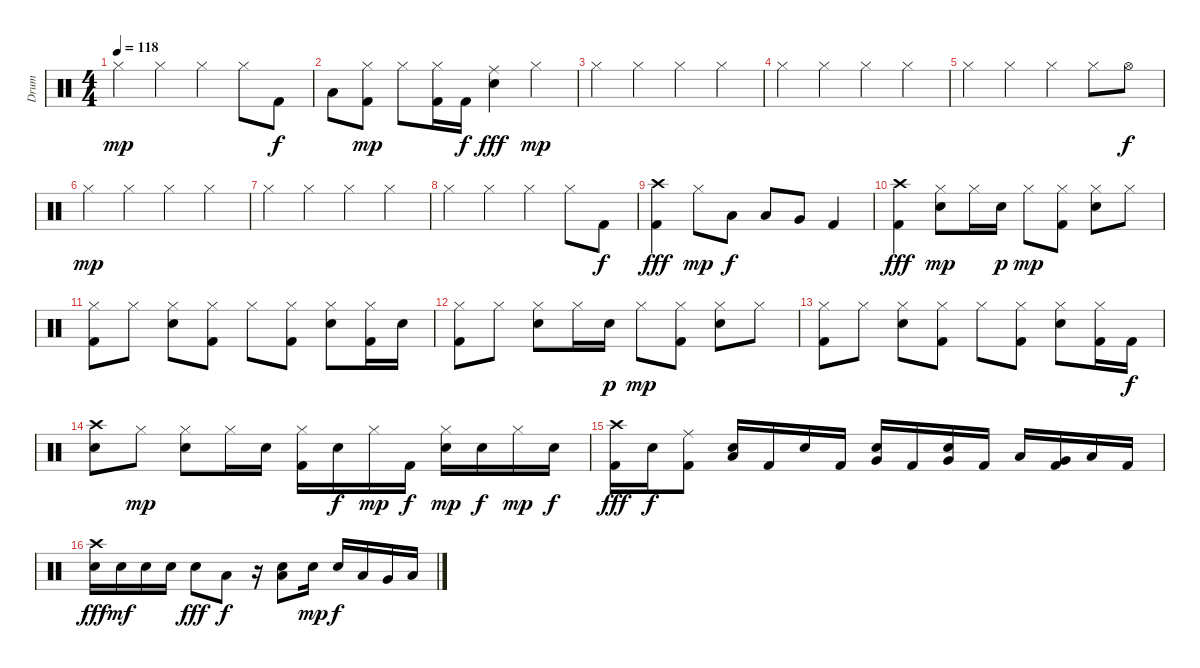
\track ("Drum" "Drum") {instrument percussion}
\staff {score}
\articulation defaults
\ts (4 4)
\tempo 118
\clef neutral
\ks c "Hi-Hat (closed)".4{dy mp} "Hi-Hat (closed)".4 "Hi-Hat (closed)".4 "Hi-Hat (closed)".8 "Kick (hit) 2".8{dy f}
|
"Low Tom (hit)".8 ("Hi-Hat (closed)" "Kick (hit) 2").8{dy mp} "Hi-Hat (closed)".8 ("Hi-Hat (closed)" "Kick (hit) 2").16 "Kick (hit) 2".16{dy f} ("Ride (middle)" "Snare (hit) 2").4{dy fff} "Hi-Hat (closed)".4{dy mp} |
"Hi-Hat (closed)".4 "Hi-Hat (closed)".4 "Hi-Hat (closed)".4 "Hi-Hat (closed)".4 |
"Hi-Hat (closed)".4 "Hi-Hat (closed)".4 "Hi-Hat (closed)".4 "Hi-Hat (closed)".4 |
"Hi-Hat (closed)".4 "Hi-Hat (closed)".4 "Hi-Hat (closed)".4 "Hi-Hat (closed)".8 "Hi-Hat (open)".8{dy f} |
"Hi-Hat (closed)".4{dy mp} "Hi-Hat (closed)".4 "Hi-Hat (closed)".4 "Hi-Hat (closed)".4 |
"Hi-Hat (closed)".4 "Hi-Hat (closed)".4 "Hi-Hat (closed)".4 "Hi-Hat (closed)".4 |
"Hi-Hat (closed)".4 "Hi-Hat (closed)".4 "Hi-Hat (closed)".4 "Hi-Hat (closed)".8 "Kick (hit) 2".8{dy f} |
("Crash high (hit)" "Kick (hit) 2").4{dy fff} "Hi-Hat (closed)".8{dy mp} "Low Tom (hit)".8{dy f} "Low Tom (hit)".8 "Very Low Tom (hit)".8 "Kick (hit) 2".4 |
("Crash high (hit)" "Kick (hit) 2").4{dy fff} ("Hi-Hat (closed)" "Snare (hit) 2").8{dy mp} "Hi-Hat (closed)".16 "Snare (hit) 2".16{dy p} "Hi-Hat (closed)".8{dy mp} ("Hi-Hat (closed)" "Kick (hit) 2").8 ("Hi-Hat (closed)" "Snare (hit) 2").8 "Hi-Hat (closed)".8 |
("Hi-Hat (closed)" "Kick (hit) 2").8 "Hi-Hat (closed)".8 ("Hi-Hat (closed)" "Snare (hit) 2").8 ("Hi-Hat (closed)" "Kick (hit) 2").8 "Hi-Hat (closed)".8 ("Hi-Hat (closed)" "Kick (hit) 2").8 ("Hi-Hat (closed)" "Snare (hit) 2").8 ("Hi-Hat (closed)" "Kick (hit) 2").16 "Snare (hit) 2".16 |
("Hi-Hat (closed)" "Kick (hit) 2").8 "Hi-Hat (closed)".8 ("Hi-Hat (closed)" "Snare (hit) 2").8 "Hi-Hat (closed)".16 "Snare (hit) 2".16{dy p} "Hi-Hat (closed)".8{dy mp} ("Hi-Hat (closed)" "Kick (hit) 2").8 ("Hi-Hat (closed)" "Snare (hit) 2").8 "Hi-Hat (closed)".8 |
("Hi-Hat (closed)" "Kick (hit) 2").8 "Hi-Hat (closed)".8 ("Hi-Hat (closed)" "Snare (hit) 2").8 ("Hi-Hat (closed)" "Kick (hit) 2").8 "Hi-Hat (closed)".8 ("Hi-Hat (closed)" "Kick (hit) 2").8 ("Hi-Hat (closed)" "Snare (hit) 2").8 ("Hi-Hat (closed)" "Kick (hit) 2").16 "Kick (hit) 2".16{dy f} |
("Crash high (hit)" "Snare (hit) 2").8 "Hi-Hat (closed)".8{dy mp} ("Hi-Hat (closed)" "Snare (hit) 2").8 "Hi-Hat (closed)".16 "Snare (hit) 2".16 ("Hi-Hat (closed)" "Kick (hit) 2").16 "Snare (hit) 2".16{dy f} "Hi-Hat (closed)".16{dy mp} "Kick (hit) 2".16{dy f} ("Hi-Hat (closed)" "Snare (hit) 2").16{dy mp} "Snare (hit) 2".16{dy f} "Hi-Hat (closed)".16{dy mp} "Snare (hit) 2".16{dy f} |
("Crash high (hit)" "Kick (hit) 2").16{dy fff} "Snare (hit) 2".16{dy f} ("Ride (middle)" "Kick (hit) 2").8 ("Snare (hit) 2" "Low Tom (hit)").16 "Kick (hit) 2".16 "Snare (hit) 2".16 "Kick (hit) 2".16 ("Snare (hit) 2" "Very Low Tom (hit)").16 "Kick (hit) 2".16 ("Snare (hit) 2" "Very Low Tom (hit)").16 "Kick (hit) 2".16 "Low Tom (hit)".16 ("Very Low Tom (hit)" "Kick (hit) 2").16 "Low Floor Tom (hit)".16 "Kick (hit) 2".16 |
("Crash high (hit)" "Snare (hit) 2").16{dy fff} "Snare (hit) 2".16{dy mf} "Snare (hit) 2".16 "Snare (hit) 2".16 "Snare (hit) 2".8{dy fff} "Low Tom (hit)".8{dy f} r.16 ("Snare (hit) 2" "Low Tom (hit)").8 "Snare (hit) 2".16{dy mp} "Snare (hit) 2".16{dy f} "Low Tom (hit)".16 "Very Low Tom (hit)".16 "Low Floor Tom (hit)".16
